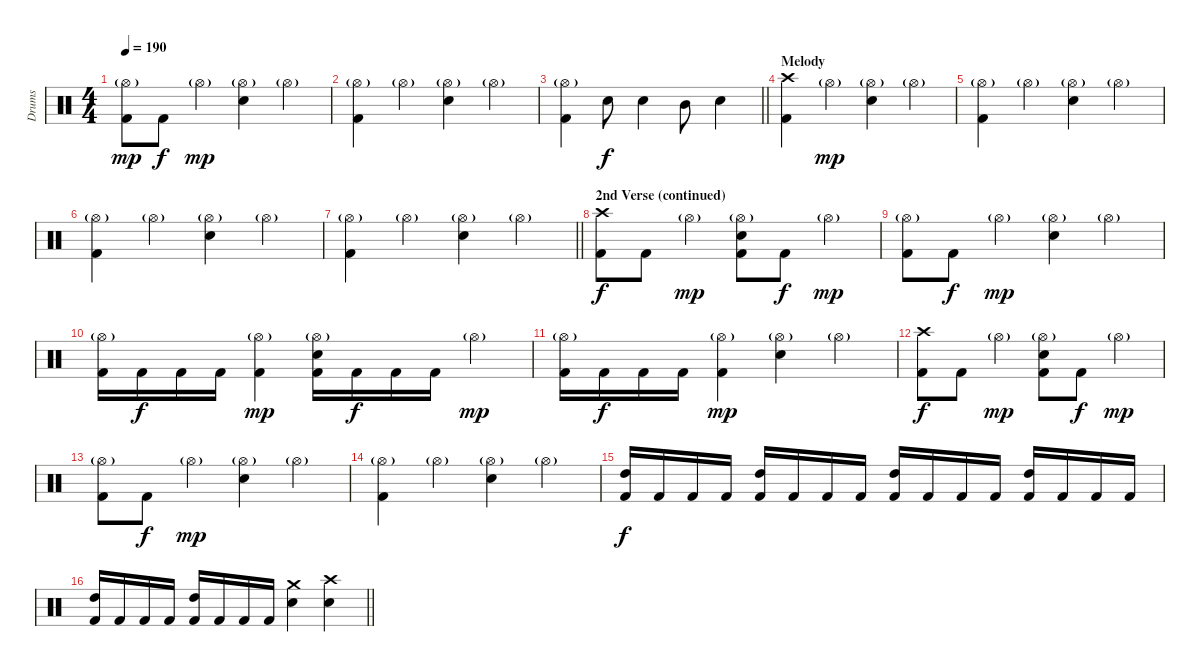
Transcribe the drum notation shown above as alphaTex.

\track ("Drums" "Drums") {instrument percussion}
\staff {score}
\articulation defaults
\ts (4 4)
\tempo 190
\clef neutral
\ks c
("Hi-Hat (open)"{g} "Kick (hit) 2").8{dy mp} "Kick (hit) 2".8{dy f} "Hi-Hat (open)"{g}.4{dy mp} ("Hi-Hat (open)"{g} "Electric Snare (hit)").4 "Hi-Hat (open)"{g}.4 |
("Hi-Hat (open)"{g} "Kick (hit) 2").4 "Hi-Hat (open)"{g}.4 ("Hi-Hat (open)"{g} "Electric Snare (hit)").4 "Hi-Hat (open)"{g}.4 |
\barLineRight lightlight
("Hi-Hat (open)"{g} "Kick (hit) 2").4 "Electric Snare (hit)".8{dy f} "Electric Snare (hit)".4 "Mid Tom (hit)".8 "Electric Snare (hit)".4 |
\section ("" "Melody")
("Crash high (hit)" "Kick (hit) 2").4 "Hi-Hat (open)"{g}.4{dy mp} ("Hi-Hat (open)"{g} "Electric Snare (hit)").4 "Hi-Hat (open)"{g}.4 |
("Hi-Hat (open)"{g} "Kick (hit) 2").4 "Hi-Hat (open)"{g}.4 ("Hi-Hat (open)"{g} "Electric Snare (hit)").4 "Hi-Hat (open)"{g}.4 |
("Hi-Hat (open)"{g} "Kick (hit) 2").4 "Hi-Hat (open)"{g}.4 ("Hi-Hat (open)"{g} "Electric Snare (hit)").4 "Hi-Hat (open)"{g}.4 |
\barLineRight lightlight
("Hi-Hat (open)"{g} "Kick (hit) 2").4 "Hi-Hat (open)"{g}.4 ("Hi-Hat (open)"{g} "Electric Snare (hit)").4 "Hi-Hat (open)"{g}.4 |
\section ("" "2nd Verse (continued)")
("Crash high (hit)" "Kick (hit) 2").8{dy f} "Kick (hit) 2".8 "Hi-Hat (open)"{g}.4{dy mp} ("Hi-Hat (open)"{g} "Electric Snare (hit)" "Kick (hit) 2").8 "Kick (hit) 2".8{dy f} "Hi-Hat (open)"{g}.4{dy mp} |
("Hi-Hat (open)"{g} "Kick (hit) 2").8 "Kick (hit) 2".8{dy f} "Hi-Hat (open)"{g}.4{dy mp} ("Hi-Hat (open)"{g} "Electric Snare (hit)").4 "Hi-Hat (open)"{g}.4 |
("Hi-Hat (open)"{g} "Kick (hit) 2").16 "Kick (hit) 2".16{dy f} "Kick (hit) 2".16 "Kick (hit) 2".16 ("Hi-Hat (open)"{g} "Kick (hit) 2").4{dy mp} ("Hi-Hat (open)"{g} "Electric Snare (hit)" "Kick (hit) 2").16 "Kick (hit) 2".16{dy f} "Kick (hit) 2".16 "Kick (hit) 2".16 "Hi-Hat (open)"{g}.4{dy mp} |
("Hi-Hat (open)"{g} "Kick (hit) 2").16 "Kick (hit) 2".16{dy f} "Kick (hit) 2".16 "Kick (hit) 2".16 ("Hi-Hat (open)"{g} "Kick (hit) 2").4{dy mp} ("Hi-Hat (open)"{g} "Electric Snare (hit)").4 "Hi-Hat (open)"{g}.4 |
("Crash high (hit)" "Kick (hit) 2").8{dy f} "Kick (hit) 2".8 "Hi-Hat (open)"{g}.4{dy mp} ("Hi-Hat (open)"{g} "Electric Snare (hit)" "Kick (hit) 2").8 "Kick (hit) 2".8{dy f} "Hi-Hat (open)"{g}.4{dy mp} |
("Hi-Hat (open)"{g} "Kick (hit) 2").8 "Kick (hit) 2".8{dy f} "Hi-Hat (open)"{g}.4{dy mp} ("Hi-Hat (open)"{g} "Electric Snare (hit)").4 "Hi-Hat (open)"{g}.4 |
("Hi-Hat (open)"{g} "Kick (hit) 2").4 "Hi-Hat (open)"{g}.4 ("Hi-Hat (open)"{g} "Electric Snare (hit)").4 "Hi-Hat (open)"{g}.4 |
("High Tom (hit)" "Kick (hit) 2").16{dy f} "Kick (hit) 2".16 "Kick (hit) 2".16 "Kick (hit) 2".16 ("High Tom (hit)" "Kick (hit) 2").16 "Kick (hit) 2".16 "Kick (hit) 2".16 "Kick (hit) 2".16 ("High Tom (hit)" "Kick (hit) 2").16 "Kick (hit) 2".16 "Kick (hit) 2".16 "Kick (hit) 2".16 ("High Tom (hit)" "Kick (hit) 2").16 "Kick (hit) 2".16 "Kick (hit) 2".16 "Kick (hit) 2".16 |
\barLineRight lightlight
("High Tom (hit)" "Kick (hit) 2").16 "Kick (hit) 2".16 "Kick (hit) 2".16 "Kick (hit) 2".16 ("High Tom (hit)" "Kick (hit) 2").16 "Kick (hit) 2".16 "Kick (hit) 2".16 "Kick (hit) 2".16 ("Crash medium (hit)" "Electric Snare (hit)").4 ("Crash high (hit)" "Electric Snare (hit)").4
